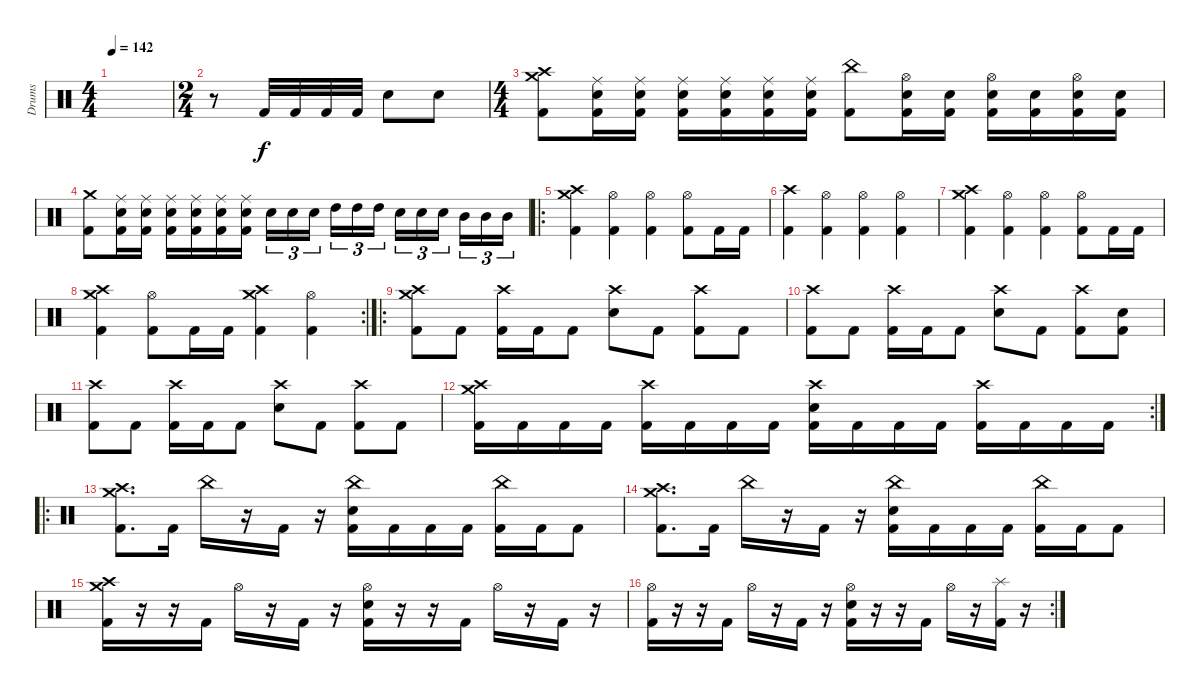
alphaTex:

\track ("Drums" "Drums") {instrument percussion}
\staff {score}
\articulation defaults
\ts (4 4)
\tempo 142
\clef neutral
\ks c
|
\ts (2 4)
r.8 "Kick (hit) 2".32 "Kick (hit) 2".32 "Kick (hit) 2".32 "Kick (hit) 2".32 "Electric Snare (hit)".8 "Electric Snare (hit)".8 |
\ts (4 4)
("Crash high (hit)" "Crash medium (hit)" "Kick (hit) 2").8 ("Ride (middle)" "Electric Snare (hit)" "Kick (hit) 2").16 ("Ride (middle)" "Electric Snare (hit)" "Kick (hit) 2").16 ("Ride (middle)" "Electric Snare (hit)" "Kick (hit) 2").16 ("Ride (middle)" "Electric Snare (hit)" "Kick (hit) 2").16 ("Ride (middle)" "Electric Snare (hit)" "Kick (hit) 2").16 ("Ride (middle)" "Electric Snare (hit)" "Kick (hit) 2").16 ("China (hit)" "Kick (hit) 2").8 ("Hi-Hat (open)" "Electric Snare (hit)" "Kick (hit) 2").16 ("Electric Snare (hit)" "Kick (hit) 2").16 ("Hi-Hat (open)" "Electric Snare (hit)" "Kick (hit) 2").16 ("Electric Snare (hit)" "Kick (hit) 2").16 ("Hi-Hat (open)" "Electric Snare (hit)" "Kick (hit) 2").16 ("Electric Snare (hit)" "Kick (hit) 2").16 |
("Crash medium (hit)" "Kick (hit) 2").8 ("Ride (middle)" "Electric Snare (hit)" "Kick (hit) 2").16 ("Ride (middle)" "Electric Snare (hit)" "Kick (hit) 2").16 ("Ride (middle)" "Electric Snare (hit)" "Kick (hit) 2").16 ("Ride (middle)" "Electric Snare (hit)" "Kick (hit) 2").16 ("Ride (middle)" "Electric Snare (hit)" "Kick (hit) 2").16 ("Ride (middle)" "Electric Snare (hit)" "Kick (hit) 2").16 "Electric Snare (hit)".16{tu (3 2)} "Electric Snare (hit)".16{tu (3 2)} "Electric Snare (hit)".16{tu (3 2) beam splitsecondary} "High Tom (hit)".16{tu (3 2)} "High Tom (hit)".16{tu (3 2)} "High Tom (hit)".16{tu (3 2)} "Electric Snare (hit)".16{tu (3 2)} "Electric Snare (hit)".16{tu (3 2)} "Electric Snare (hit)".16{tu (3 2) beam splitsecondary} "Mid Tom (hit)".16{tu (3 2)} "Mid Tom (hit)".16{tu (3 2)} "Mid Tom (hit)".16{tu (3 2)} |
\ro
("Crash high (hit)" "Crash medium (hit)" "Kick (hit) 2").4 ("Hi-Hat (open)" "Kick (hit) 2").4 ("Hi-Hat (open)" "Kick (hit) 2").4 ("Hi-Hat (open)" "Kick (hit) 2").8 "Kick (hit) 2".16 "Kick (hit) 2".16 |
("Crash high (hit)" "Kick (hit) 2").4 ("Hi-Hat (open)" "Kick (hit) 2").4 ("Hi-Hat (open)" "Kick (hit) 2").4 ("Hi-Hat (open)" "Kick (hit) 2").4 |
("Crash high (hit)" "Crash medium (hit)" "Kick (hit) 2").4 ("Hi-Hat (open)" "Kick (hit) 2").4 ("Hi-Hat (open)" "Kick (hit) 2").4 ("Hi-Hat (open)" "Kick (hit) 2").8 "Kick (hit) 2".16 "Kick (hit) 2".16 |
\rc 2
("Crash high (hit)" "Crash medium (hit)" "Kick (hit) 2").4 ("Hi-Hat (open)" "Kick (hit) 2").8 "Kick (hit) 2".16 "Kick (hit) 2".16 ("Crash high (hit)" "Crash medium (hit)" "Kick (hit) 2").4 ("Hi-Hat (open)" "Kick (hit) 2").4 |
\ro
("Crash high (hit)" "Crash medium (hit)" "Kick (hit) 2").8 "Kick (hit) 2".8 ("Crash high (hit)" "Kick (hit) 2").16 "Kick (hit) 2".16 "Kick (hit) 2".8 ("Crash high (hit)" "Electric Snare (hit)").8 "Kick (hit) 2".8 ("Crash high (hit)" "Kick (hit) 2").8 "Kick (hit) 2".8 |
("Crash high (hit)" "Kick (hit) 2").8 "Kick (hit) 2".8 ("Crash high (hit)" "Kick (hit) 2").16 "Kick (hit) 2".16 "Kick (hit) 2".8 ("Crash high (hit)" "Electric Snare (hit)").8 "Kick (hit) 2".8 ("Crash high (hit)" "Kick (hit) 2").8 ("Electric Snare (hit)" "Kick (hit) 2").8 |
("Crash high (hit)" "Kick (hit) 2").8 "Kick (hit) 2".8 ("Crash high (hit)" "Kick (hit) 2").16 "Kick (hit) 2".16 "Kick (hit) 2".8 ("Crash high (hit)" "Electric Snare (hit)").8 "Kick (hit) 2".8 ("Crash high (hit)" "Kick (hit) 2").8 "Kick (hit) 2".8 |
\rc 2
("Crash high (hit)" "Crash medium (hit)" "Kick (hit) 2").16 "Kick (hit) 2".16 "Kick (hit) 2".16 "Kick (hit) 2".16 ("Crash high (hit)" "Kick (hit) 2").16 "Kick (hit) 2".16 "Kick (hit) 2".16 "Kick (hit) 2".16 ("Crash high (hit)" "Electric Snare (hit)" "Kick (hit) 2").16 "Kick (hit) 2".16 "Kick (hit) 2".16 "Kick (hit) 2".16 ("Crash high (hit)" "Kick (hit) 2").16 "Kick (hit) 2".16 "Kick (hit) 2".16 "Kick (hit) 2".16 |
\ro
("Crash high (hit)" "Crash medium (hit)" "Kick (hit) 2").8{d} "Kick (hit) 2".16 "China (hit)".16 r.16 "Kick (hit) 2".16 r.16 ("China (hit)" "Electric Snare (hit)" "Kick (hit) 2").16 "Kick (hit) 2".16 "Kick (hit) 2".16 "Kick (hit) 2".16 ("China (hit)" "Kick (hit) 2").16 "Kick (hit) 2".16 "Kick (hit) 2".8 |
("Crash medium (hit)" "Crash high (hit)" "Kick (hit) 2").8{d} "Kick (hit) 2".16 "China (hit)".16 r.16 "Kick (hit) 2".16 r.16 ("China (hit)" "Electric Snare (hit)" "Kick (hit) 2").16 "Kick (hit) 2".16 "Kick (hit) 2".16 "Kick (hit) 2".16 ("China (hit)" "Kick (hit) 2").16 "Kick (hit) 2".16 "Kick (hit) 2".8 |
("Crash high (hit)" "Crash medium (hit)" "Kick (hit) 2").16 r.16 r.16 "Kick (hit) 2".16 "Hi-Hat (open)".16 r.16 "Kick (hit) 2".16 r.16 ("Hi-Hat (open)" "Electric Snare (hit)" "Kick (hit) 2").16 r.16 r.16 "Kick (hit) 2".16 "Hi-Hat (open)".16 r.16 "Kick (hit) 2".16 r.16 |
\rc 2
("Hi-Hat (open)" "Kick (hit) 2").16 r.16 r.16 "Kick (hit) 2".16 "Hi-Hat (open)".16 r.16 "Kick (hit) 2".16 r.16 ("Hi-Hat (open)" "Electric Snare (hit)" "Kick (hit) 2").16 r.16 r.16 "Kick (hit) 2".16 "Hi-Hat (open)".16 r.16 ("Splash (hit)" "Kick (hit) 2").16 r.16
